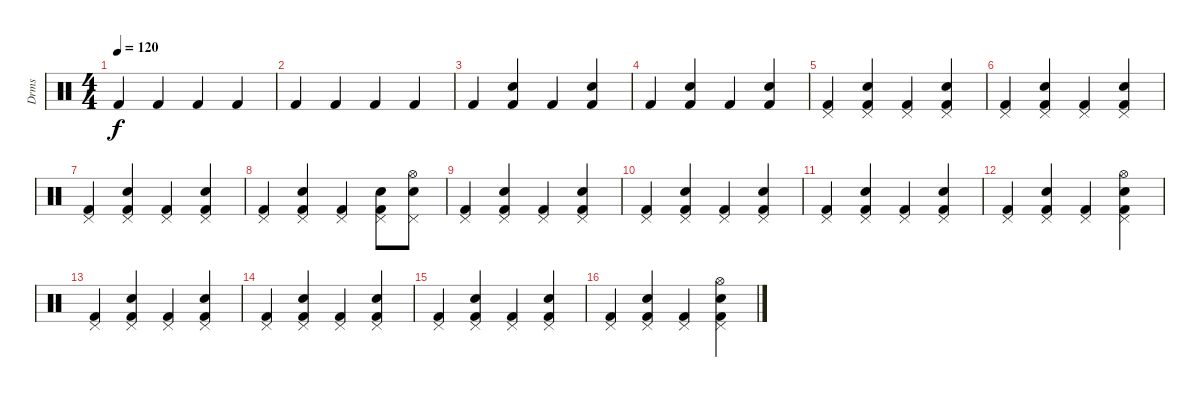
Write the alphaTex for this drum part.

\track ("Drms" "Drms") {instrument percussion}
\staff {score}
\articulation defaults
\ts (4 4)
\tempo 120
\clef neutral
\ks c "Kick (hit) 2".4{dy f} "Kick (hit) 2".4 "Kick (hit) 2".4 "Kick (hit) 2".4
|
"Kick (hit) 2".4 "Kick (hit) 2".4 "Kick (hit) 2".4 "Kick (hit) 2".4 |
"Kick (hit) 2".4 ("Kick (hit) 2" "Snare (hit) 2").4 "Kick (hit) 2".4 ("Kick (hit) 2" "Snare (hit) 2").4 |
"Kick (hit) 2".4 ("Kick (hit) 2" "Snare (hit) 2").4 "Kick (hit) 2".4 ("Kick (hit) 2" "Snare (hit) 2").4 |
("Kick (hit) 2" "Pedal Hi-Hat (hit)").4 ("Kick (hit) 2" "Snare (hit) 2" "Pedal Hi-Hat (hit)").4 ("Kick (hit) 2" "Pedal Hi-Hat (hit)").4 ("Kick (hit) 2" "Snare (hit) 2" "Pedal Hi-Hat (hit)").4 |
("Kick (hit) 2" "Pedal Hi-Hat (hit)").4 ("Kick (hit) 2" "Snare (hit) 2" "Pedal Hi-Hat (hit)").4 ("Kick (hit) 2" "Pedal Hi-Hat (hit)").4 ("Kick (hit) 2" "Snare (hit) 2" "Pedal Hi-Hat (hit)").4 |
("Kick (hit) 2" "Pedal Hi-Hat (hit)").4 ("Kick (hit) 2" "Snare (hit) 2" "Pedal Hi-Hat (hit)").4 ("Kick (hit) 2" "Pedal Hi-Hat (hit)").4 ("Kick (hit) 2" "Snare (hit) 2" "Pedal Hi-Hat (hit)").4 |
("Kick (hit) 2" "Pedal Hi-Hat (hit)").4 ("Kick (hit) 2" "Snare (hit) 2" "Pedal Hi-Hat (hit)").4 ("Kick (hit) 2" "Pedal Hi-Hat (hit)").4 ("Kick (hit) 2" "Snare (hit) 2" "Pedal Hi-Hat (hit)").8 ("Snare (hit) 2" "Pedal Hi-Hat (hit)" "Hi-Hat (open)").8 |
("Kick (hit) 2" "Pedal Hi-Hat (hit)").4 ("Kick (hit) 2" "Snare (hit) 2" "Pedal Hi-Hat (hit)").4 ("Kick (hit) 2" "Pedal Hi-Hat (hit)").4 ("Kick (hit) 2" "Snare (hit) 2" "Pedal Hi-Hat (hit)").4 |
("Kick (hit) 2" "Pedal Hi-Hat (hit)").4 ("Kick (hit) 2" "Snare (hit) 2" "Pedal Hi-Hat (hit)").4 ("Kick (hit) 2" "Pedal Hi-Hat (hit)").4 ("Kick (hit) 2" "Snare (hit) 2" "Pedal Hi-Hat (hit)").4 |
("Kick (hit) 2" "Pedal Hi-Hat (hit)").4 ("Kick (hit) 2" "Snare (hit) 2" "Pedal Hi-Hat (hit)").4 ("Kick (hit) 2" "Pedal Hi-Hat (hit)").4 ("Kick (hit) 2" "Snare (hit) 2" "Pedal Hi-Hat (hit)").4 |
("Kick (hit) 2" "Pedal Hi-Hat (hit)").4 ("Kick (hit) 2" "Snare (hit) 2" "Pedal Hi-Hat (hit)").4 ("Kick (hit) 2" "Pedal Hi-Hat (hit)").4 ("Kick (hit) 2" "Snare (hit) 2" "Pedal Hi-Hat (hit)" "Hi-Hat (open)").4 |
("Kick (hit) 2" "Pedal Hi-Hat (hit)").4 ("Kick (hit) 2" "Snare (hit) 2" "Pedal Hi-Hat (hit)").4 ("Kick (hit) 2" "Pedal Hi-Hat (hit)").4 ("Kick (hit) 2" "Snare (hit) 2" "Pedal Hi-Hat (hit)").4 |
("Kick (hit) 2" "Pedal Hi-Hat (hit)").4 ("Kick (hit) 2" "Snare (hit) 2" "Pedal Hi-Hat (hit)").4 ("Kick (hit) 2" "Pedal Hi-Hat (hit)").4 ("Kick (hit) 2" "Snare (hit) 2" "Pedal Hi-Hat (hit)").4 |
("Kick (hit) 2" "Pedal Hi-Hat (hit)").4 ("Kick (hit) 2" "Snare (hit) 2" "Pedal Hi-Hat (hit)").4 ("Kick (hit) 2" "Pedal Hi-Hat (hit)").4 ("Kick (hit) 2" "Snare (hit) 2" "Pedal Hi-Hat (hit)").4 |
("Kick (hit) 2" "Pedal Hi-Hat (hit)").4 ("Kick (hit) 2" "Snare (hit) 2" "Pedal Hi-Hat (hit)").4 ("Kick (hit) 2" "Pedal Hi-Hat (hit)").4 ("Kick (hit) 2" "Snare (hit) 2" "Pedal Hi-Hat (hit)" "Hi-Hat (open)").4
